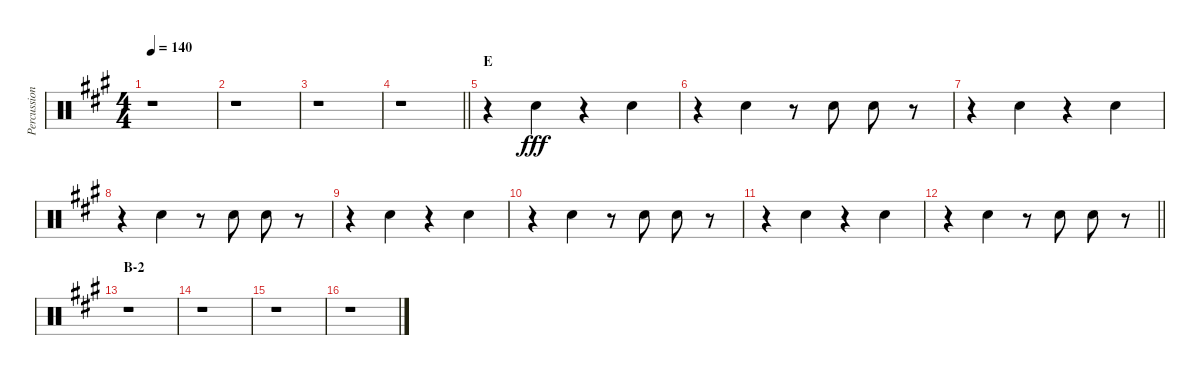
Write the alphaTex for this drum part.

\track ("Percussion" "Percussion") {instrument percussion}
\staff {score}
\articulation defaults
\ts (4 4)
\tempo 140
\clef neutral
\ks a
r.1{dy fff} |
r.1 |
r.1 |
\barLineRight lightlight
r.1 |
\section ("" "E")
r.4 "Hand Clap (hit)".4 r.4 "Hand Clap (hit)".4 |
r.4 "Hand Clap (hit)".4 r.8 "Hand Clap (hit)".8 "Hand Clap (hit)".8 r.8 |
r.4 "Hand Clap (hit)".4 r.4 "Hand Clap (hit)".4 |
r.4 "Hand Clap (hit)".4 r.8 "Hand Clap (hit)".8 "Hand Clap (hit)".8 r.8 |
r.4 "Hand Clap (hit)".4 r.4 "Hand Clap (hit)".4 |
r.4 "Hand Clap (hit)".4 r.8 "Hand Clap (hit)".8 "Hand Clap (hit)".8 r.8 |
r.4 "Hand Clap (hit)".4 r.4 "Hand Clap (hit)".4 |
\barLineRight lightlight
r.4 "Hand Clap (hit)".4 r.8 "Hand Clap (hit)".8 "Hand Clap (hit)".8 r.8 |
\section ("" "B-2")
r.1 |
r.1 |
r.1 |
r.1
